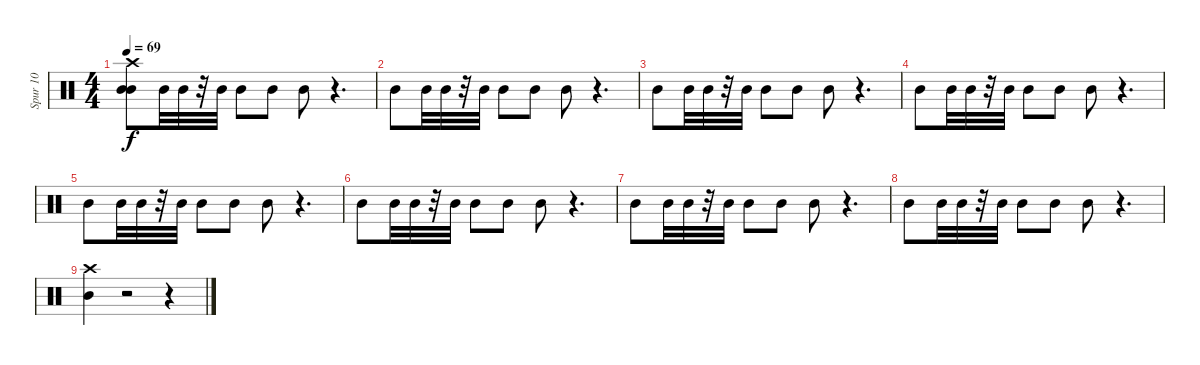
\track ("Spur 10" "Spur 10") {instrument percussion}
\staff {score}
\articulation defaults
\ts (4 4)
\tempo 69
\clef neutral
\ks c
("Mid Tom (hit)" "Crash high (hit)" "Mid Tom (hit)").8{dy f} "Mid Tom (hit)".32 "Mid Tom (hit)".32 r.32 "Mid Tom (hit)".32 "Mid Tom (hit)".8 "Mid Tom (hit)".8 "Mid Tom (hit)".8 r.4{d} |
"Mid Tom (hit)".8 "Mid Tom (hit)".32 "Mid Tom (hit)".32 r.32 "Mid Tom (hit)".32 "Mid Tom (hit)".8 "Mid Tom (hit)".8 "Mid Tom (hit)".8 r.4{d} |
"Mid Tom (hit)".8 "Mid Tom (hit)".32 "Mid Tom (hit)".32 r.32 "Mid Tom (hit)".32 "Mid Tom (hit)".8 "Mid Tom (hit)".8 "Mid Tom (hit)".8 r.4{d} |
"Mid Tom (hit)".8 "Mid Tom (hit)".32 "Mid Tom (hit)".32 r.32 "Mid Tom (hit)".32 "Mid Tom (hit)".8 "Mid Tom (hit)".8 "Mid Tom (hit)".8 r.4{d} |
"Mid Tom (hit)".8 "Mid Tom (hit)".32 "Mid Tom (hit)".32 r.32 "Mid Tom (hit)".32 "Mid Tom (hit)".8 "Mid Tom (hit)".8 "Mid Tom (hit)".8 r.4{d} |
"Mid Tom (hit)".8 "Mid Tom (hit)".32 "Mid Tom (hit)".32 r.32 "Mid Tom (hit)".32 "Mid Tom (hit)".8 "Mid Tom (hit)".8 "Mid Tom (hit)".8 r.4{d} |
"Mid Tom (hit)".8 "Mid Tom (hit)".32 "Mid Tom (hit)".32 r.32 "Mid Tom (hit)".32 "Mid Tom (hit)".8 "Mid Tom (hit)".8 "Mid Tom (hit)".8 r.4{d} |
"Mid Tom (hit)".8 "Mid Tom (hit)".32 "Mid Tom (hit)".32 r.32 "Mid Tom (hit)".32 "Mid Tom (hit)".8 "Mid Tom (hit)".8 "Mid Tom (hit)".8 r.4{d} |
("Mid Tom (hit)" "Crash high (hit)").4 r.2 r.4
